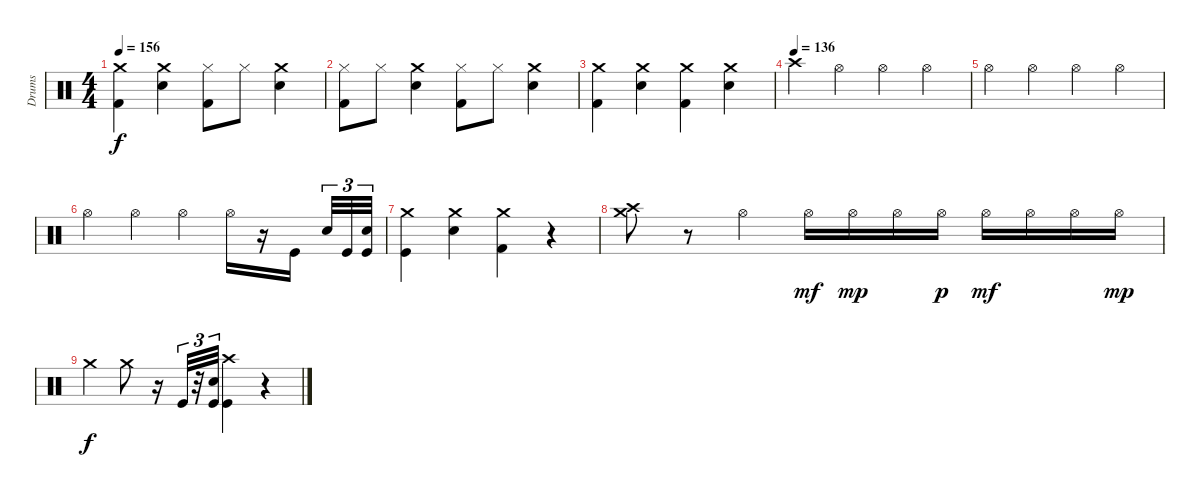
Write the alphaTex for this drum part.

\track ("Drums" "Drums") {instrument percussion}
\staff {score}
\articulation defaults
\ts (4 4)
\tempo 156
\clef neutral
\ks c
("Kick (hit) 2" "Crash medium (hit)").4{dy f} ("Snare (hit) 2" "Crash medium (hit)").4 ("Hi-Hat (closed)" "Kick (hit) 2").8 "Hi-Hat (closed)".8 ("Crash medium (hit)" "Snare (hit) 2").4 |
("Kick (hit) 2" "Hi-Hat (closed)").8 "Hi-Hat (closed)".8 ("Crash medium (hit)" "Snare (hit) 2").4 ("Kick (hit) 2" "Hi-Hat (closed)").8 "Hi-Hat (closed)".8 ("Snare (hit) 2" "Crash medium (hit)").4 |
("Crash medium (hit)" "Kick (hit) 2").4 ("Crash medium (hit)" "Snare (hit) 2").4 ("Crash medium (hit)" "Kick (hit) 2").4 ("Crash medium (hit)" "Snare (hit) 2").4 |
\tempo (136)
"Crash high (hit)".4 "Hi-Hat (open)".4 "Hi-Hat (open)".4 "Hi-Hat (open)".4 |
"Hi-Hat (open)".4 "Hi-Hat (open)".4 "Hi-Hat (open)".4 "Hi-Hat (open)".4 |
"Hi-Hat (open)".4 "Hi-Hat (open)".4 "Hi-Hat (open)".4 "Hi-Hat (open)".16 r.16 "Kick (hit)".16 "Snare (hit) 2".32{tu (3 2)} "Kick (hit)".32{tu (3 2)} ("Kick (hit)" "Snare (hit) 2").32{tu (3 2)} |
("Kick (hit)" "Crash medium (hit)").4 ("Snare (hit) 2" "Crash medium (hit)").4 ("Kick (hit) 2" "Crash medium (hit)").4 r.4 |
("Crash high (hit)" "Crash medium (hit)").8 r.8 "Hi-Hat (open)".4 "Hi-Hat (open)".16{dy mf} "Hi-Hat (open)".16{dy mp} "Hi-Hat (open)".16 "Hi-Hat (open)".16{dy p} "Hi-Hat (open)".16{dy mf} "Hi-Hat (open)".16 "Hi-Hat (open)".16 "Hi-Hat (open)".16{dy mp} |
"Crash medium (hit)".4{dy f} "Crash medium (hit)".8 r.16 "Kick (hit)".32{tu (3 2)} r.32{tu (3 2)} ("Kick (hit)" "Snare (hit) 2").32{tu (3 2)} ("Crash high (hit)" "Kick (hit)").4 r.4
